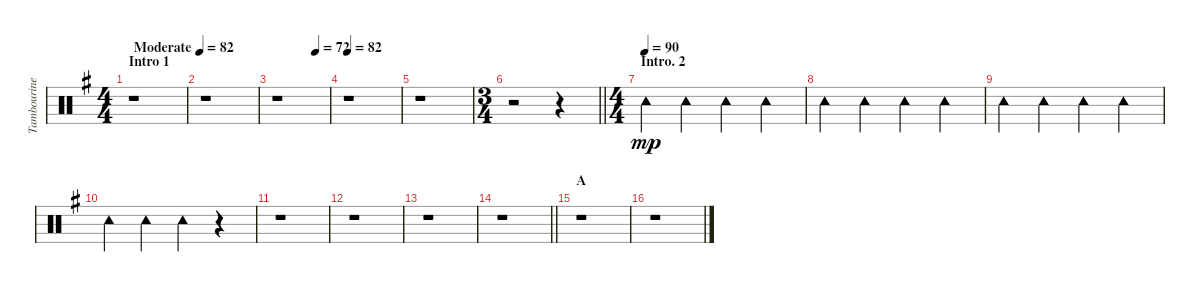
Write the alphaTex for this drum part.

\track ("Tambourine" "Tambourine") {instrument percussion}
\staff {score}
\articulation defaults
\ts (4 4)
\section ("" "Intro 1")
\tempo (82 "Moderate")
\clef neutral
\ks g
r.1{dy mp} |
r.1 |
\tempo (72 0.75)
r.1 |
\tempo 82
r.1 |
r.1 |
\ts (3 4)
\barLineRight lightlight
r.2 r.4 |
\ts (4 4)
\section ("" "Intro. 2")
\tempo (90)
"Tambourine (hit)".4 "Tambourine (hit)".4 "Tambourine (hit)".4 "Tambourine (hit)".4 |
"Tambourine (hit)".4 "Tambourine (hit)".4 "Tambourine (hit)".4 "Tambourine (hit)".4 |
"Tambourine (hit)".4 "Tambourine (hit)".4 "Tambourine (hit)".4 "Tambourine (hit)".4 |
"Tambourine (hit)".4 "Tambourine (hit)".4 "Tambourine (hit)".4 r.4 |
r.1 |
r.1 |
r.1 |
\barLineRight lightlight
r.1 |
\section ("" "A")
r.1 |
r.1
